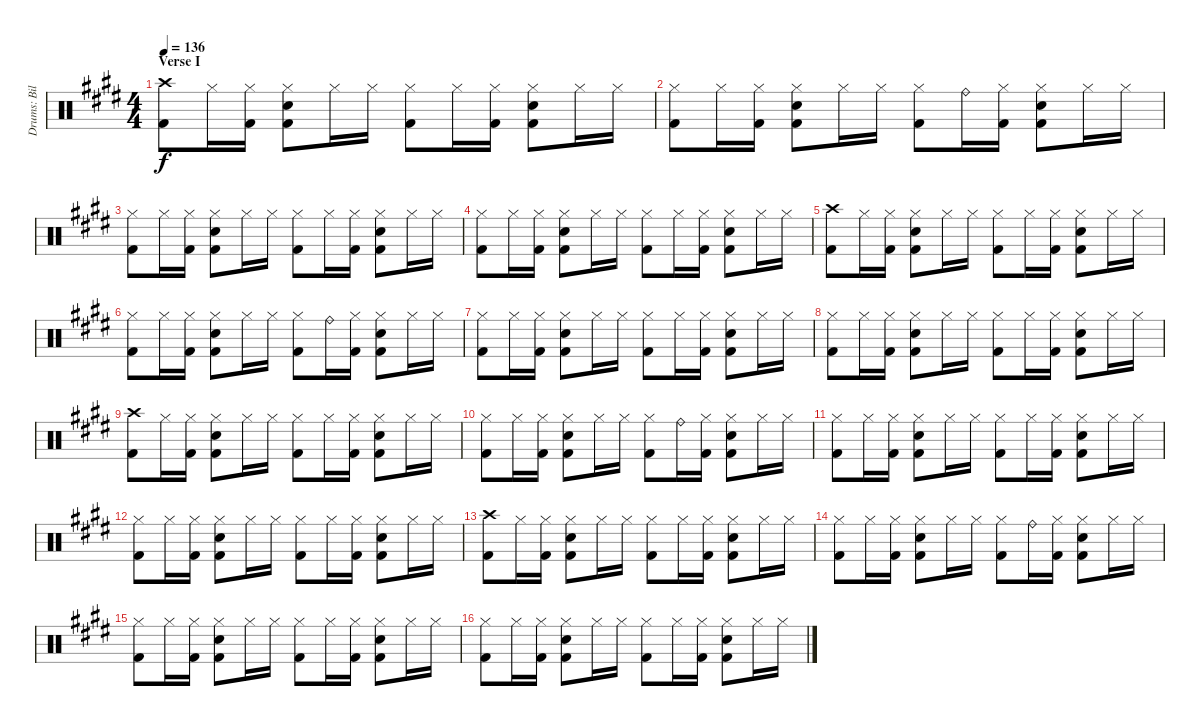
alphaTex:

\track ("Drums: Bill" "Drums: Bil") {instrument percussion}
\staff {score}
\articulation defaults
\ts (4 4)
\section ("" "Verse I")
\tempo 136
\clef neutral
\ks e
("Crash high (hit)" "Kick (hit) 2").8{dy f} "Hi-Hat (closed)".16 ("Hi-Hat (closed)" "Kick (hit) 2").16 ("Hi-Hat (closed)" "Snare (hit) 2" "Kick (hit) 2").8 "Hi-Hat (closed)".16 "Hi-Hat (closed)".16 ("Hi-Hat (closed)" "Kick (hit) 2").8 "Hi-Hat (closed)".16 ("Hi-Hat (closed)" "Kick (hit) 2").16 ("Hi-Hat (closed)" "Snare (hit) 2" "Kick (hit) 2").8 "Hi-Hat (closed)".16 "Hi-Hat (closed)".16 |
("Hi-Hat (closed)" "Kick (hit) 2").8 "Hi-Hat (closed)".16 ("Hi-Hat (closed)" "Kick (hit) 2").16 ("Hi-Hat (closed)" "Snare (hit) 2" "Kick (hit) 2").8 "Hi-Hat (closed)".16 "Hi-Hat (closed)".16 ("Hi-Hat (closed)" "Kick (hit) 2").8 "Ride (bell)".16 ("Hi-Hat (closed)" "Kick (hit) 2").16 ("Hi-Hat (closed)" "Snare (hit) 2" "Kick (hit) 2").8 "Hi-Hat (closed)".16 "Hi-Hat (closed)".16 |
("Hi-Hat (closed)" "Kick (hit) 2").8 "Hi-Hat (closed)".16 ("Hi-Hat (closed)" "Kick (hit) 2").16 ("Hi-Hat (closed)" "Snare (hit) 2" "Kick (hit) 2").8 "Hi-Hat (closed)".16 "Hi-Hat (closed)".16 ("Hi-Hat (closed)" "Kick (hit) 2").8 "Hi-Hat (closed)".16 ("Hi-Hat (closed)" "Kick (hit) 2").16 ("Hi-Hat (closed)" "Snare (hit) 2" "Kick (hit) 2").8 "Hi-Hat (closed)".16 "Hi-Hat (closed)".16 |
("Hi-Hat (closed)" "Kick (hit) 2").8 "Hi-Hat (closed)".16 ("Hi-Hat (closed)" "Kick (hit) 2").16 ("Hi-Hat (closed)" "Snare (hit) 2" "Kick (hit) 2").8 "Hi-Hat (closed)".16 "Hi-Hat (closed)".16 ("Hi-Hat (closed)" "Kick (hit) 2").8 "Hi-Hat (closed)".16 ("Hi-Hat (closed)" "Kick (hit) 2").16 ("Hi-Hat (closed)" "Snare (hit) 2" "Kick (hit) 2").8 "Hi-Hat (closed)".16 "Hi-Hat (closed)".16 |
("Crash high (hit)" "Kick (hit) 2").8 "Hi-Hat (closed)".16 ("Hi-Hat (closed)" "Kick (hit) 2").16 ("Hi-Hat (closed)" "Snare (hit) 2" "Kick (hit) 2").8 "Hi-Hat (closed)".16 "Hi-Hat (closed)".16 ("Hi-Hat (closed)" "Kick (hit) 2").8 "Hi-Hat (closed)".16 ("Hi-Hat (closed)" "Kick (hit) 2").16 ("Hi-Hat (closed)" "Snare (hit) 2" "Kick (hit) 2").8 "Hi-Hat (closed)".16 "Hi-Hat (closed)".16 |
("Hi-Hat (closed)" "Kick (hit) 2").8 "Hi-Hat (closed)".16 ("Hi-Hat (closed)" "Kick (hit) 2").16 ("Hi-Hat (closed)" "Snare (hit) 2" "Kick (hit) 2").8 "Hi-Hat (closed)".16 "Hi-Hat (closed)".16 ("Hi-Hat (closed)" "Kick (hit) 2").8 "Ride (bell)".16 ("Hi-Hat (closed)" "Kick (hit) 2").16 ("Hi-Hat (closed)" "Snare (hit) 2" "Kick (hit) 2").8 "Hi-Hat (closed)".16 "Hi-Hat (closed)".16 |
("Hi-Hat (closed)" "Kick (hit) 2").8 "Hi-Hat (closed)".16 ("Hi-Hat (closed)" "Kick (hit) 2").16 ("Hi-Hat (closed)" "Snare (hit) 2" "Kick (hit) 2").8 "Hi-Hat (closed)".16 "Hi-Hat (closed)".16 ("Hi-Hat (closed)" "Kick (hit) 2").8 "Hi-Hat (closed)".16 ("Hi-Hat (closed)" "Kick (hit) 2").16 ("Hi-Hat (closed)" "Snare (hit) 2" "Kick (hit) 2").8 "Hi-Hat (closed)".16 "Hi-Hat (closed)".16 |
("Hi-Hat (closed)" "Kick (hit) 2").8 "Hi-Hat (closed)".16 ("Hi-Hat (closed)" "Kick (hit) 2").16 ("Hi-Hat (closed)" "Snare (hit) 2" "Kick (hit) 2").8 "Hi-Hat (closed)".16 "Hi-Hat (closed)".16 ("Hi-Hat (closed)" "Kick (hit) 2").8 "Hi-Hat (closed)".16 ("Hi-Hat (closed)" "Kick (hit) 2").16 ("Hi-Hat (closed)" "Snare (hit) 2" "Kick (hit) 2").8 "Hi-Hat (closed)".16 "Hi-Hat (closed)".16 |
("Crash high (hit)" "Kick (hit) 2").8 "Hi-Hat (closed)".16 ("Hi-Hat (closed)" "Kick (hit) 2").16 ("Hi-Hat (closed)" "Snare (hit) 2" "Kick (hit) 2").8 "Hi-Hat (closed)".16 "Hi-Hat (closed)".16 ("Hi-Hat (closed)" "Kick (hit) 2").8 "Hi-Hat (closed)".16 ("Hi-Hat (closed)" "Kick (hit) 2").16 ("Hi-Hat (closed)" "Snare (hit) 2" "Kick (hit) 2").8 "Hi-Hat (closed)".16 "Hi-Hat (closed)".16 |
("Hi-Hat (closed)" "Kick (hit) 2").8 "Hi-Hat (closed)".16 ("Hi-Hat (closed)" "Kick (hit) 2").16 ("Hi-Hat (closed)" "Snare (hit) 2" "Kick (hit) 2").8 "Hi-Hat (closed)".16 "Hi-Hat (closed)".16 ("Hi-Hat (closed)" "Kick (hit) 2").8 "Ride (bell)".16 ("Hi-Hat (closed)" "Kick (hit) 2").16 ("Hi-Hat (closed)" "Snare (hit) 2" "Kick (hit) 2").8 "Hi-Hat (closed)".16 "Hi-Hat (closed)".16 |
("Hi-Hat (closed)" "Kick (hit) 2").8 "Hi-Hat (closed)".16 ("Hi-Hat (closed)" "Kick (hit) 2").16 ("Hi-Hat (closed)" "Snare (hit) 2" "Kick (hit) 2").8 "Hi-Hat (closed)".16 "Hi-Hat (closed)".16 ("Hi-Hat (closed)" "Kick (hit) 2").8 "Hi-Hat (closed)".16 ("Hi-Hat (closed)" "Kick (hit) 2").16 ("Hi-Hat (closed)" "Snare (hit) 2" "Kick (hit) 2").8 "Hi-Hat (closed)".16 "Hi-Hat (closed)".16 |
("Hi-Hat (closed)" "Kick (hit) 2").8 "Hi-Hat (closed)".16 ("Hi-Hat (closed)" "Kick (hit) 2").16 ("Hi-Hat (closed)" "Snare (hit) 2" "Kick (hit) 2").8 "Hi-Hat (closed)".16 "Hi-Hat (closed)".16 ("Hi-Hat (closed)" "Kick (hit) 2").8 "Hi-Hat (closed)".16 ("Hi-Hat (closed)" "Kick (hit) 2").16 ("Hi-Hat (closed)" "Snare (hit) 2" "Kick (hit) 2").8 "Hi-Hat (closed)".16 "Hi-Hat (closed)".16 |
("Crash high (hit)" "Kick (hit) 2").8 "Hi-Hat (closed)".16 ("Hi-Hat (closed)" "Kick (hit) 2").16 ("Hi-Hat (closed)" "Snare (hit) 2" "Kick (hit) 2").8 "Hi-Hat (closed)".16 "Hi-Hat (closed)".16 ("Hi-Hat (closed)" "Kick (hit) 2").8 "Hi-Hat (closed)".16 ("Hi-Hat (closed)" "Kick (hit) 2").16 ("Hi-Hat (closed)" "Snare (hit) 2" "Kick (hit) 2").8 "Hi-Hat (closed)".16 "Hi-Hat (closed)".16 |
("Hi-Hat (closed)" "Kick (hit) 2").8 "Hi-Hat (closed)".16 ("Hi-Hat (closed)" "Kick (hit) 2").16 ("Hi-Hat (closed)" "Snare (hit) 2" "Kick (hit) 2").8 "Hi-Hat (closed)".16 "Hi-Hat (closed)".16 ("Hi-Hat (closed)" "Kick (hit) 2").8 "Ride (bell)".16 ("Hi-Hat (closed)" "Kick (hit) 2").16 ("Hi-Hat (closed)" "Snare (hit) 2" "Kick (hit) 2").8 "Hi-Hat (closed)".16 "Hi-Hat (closed)".16 |
("Hi-Hat (closed)" "Kick (hit) 2").8 "Hi-Hat (closed)".16 ("Hi-Hat (closed)" "Kick (hit) 2").16 ("Hi-Hat (closed)" "Snare (hit) 2" "Kick (hit) 2").8 "Hi-Hat (closed)".16 "Hi-Hat (closed)".16 ("Hi-Hat (closed)" "Kick (hit) 2").8 "Hi-Hat (closed)".16 ("Hi-Hat (closed)" "Kick (hit) 2").16 ("Hi-Hat (closed)" "Snare (hit) 2" "Kick (hit) 2").8 "Hi-Hat (closed)".16 "Hi-Hat (closed)".16 |
("Hi-Hat (closed)" "Kick (hit) 2").8 "Hi-Hat (closed)".16 ("Hi-Hat (closed)" "Kick (hit) 2").16 ("Hi-Hat (closed)" "Snare (hit) 2" "Kick (hit) 2").8 "Hi-Hat (closed)".16 "Hi-Hat (closed)".16 ("Hi-Hat (closed)" "Kick (hit) 2").8 "Hi-Hat (closed)".16 ("Hi-Hat (closed)" "Kick (hit) 2").16 ("Hi-Hat (closed)" "Snare (hit) 2" "Kick (hit) 2").8 "Hi-Hat (closed)".16 "Hi-Hat (closed)".16
